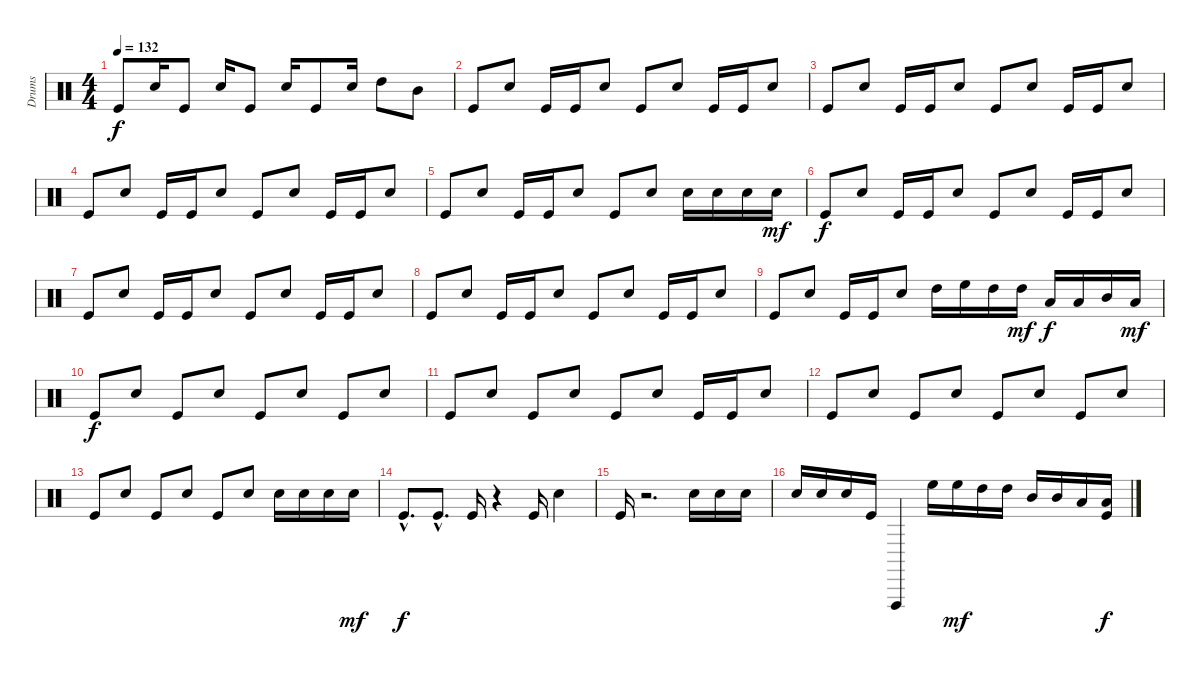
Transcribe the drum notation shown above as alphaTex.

\track ("Drums" "Drums") {instrument percussion}
\staff {score}
\articulation defaults
\ts (4 4)
\tempo 132
\clef neutral
\ks c "Kick (hit)".8{dy f} "Electric Snare (hit)".16 "Kick (hit)".8 "Electric Snare (hit)".16 "Kick (hit)".8 "Electric Snare (hit)".16 "Kick (hit)".8 "Electric Snare (hit)".16 "High Tom (hit)".8 "Mid Tom (hit)".8
|
"Kick (hit)".8 "Electric Snare (hit)".8 "Kick (hit)".16 "Kick (hit)".16 "Electric Snare (hit)".8 "Kick (hit)".8 "Electric Snare (hit)".8 "Kick (hit)".16 "Kick (hit)".16 "Electric Snare (hit)".8 |
"Kick (hit)".8 "Electric Snare (hit)".8 "Kick (hit)".16 "Kick (hit)".16 "Electric Snare (hit)".8 "Kick (hit)".8 "Electric Snare (hit)".8 "Kick (hit)".16 "Kick (hit)".16 "Electric Snare (hit)".8 |
"Kick (hit)".8 "Electric Snare (hit)".8 "Kick (hit)".16 "Kick (hit)".16 "Electric Snare (hit)".8 "Kick (hit)".8 "Electric Snare (hit)".8 "Kick (hit)".16 "Kick (hit)".16 "Electric Snare (hit)".8 |
"Kick (hit)".8 "Electric Snare (hit)".8 "Kick (hit)".16 "Kick (hit)".16 "Electric Snare (hit)".8 "Kick (hit)".8 "Electric Snare (hit)".8 "Electric Snare (hit)".16 "Electric Snare (hit)".16 "Electric Snare (hit)".16 "Electric Snare (hit)".16{dy mf} |
"Kick (hit)".8{dy f} "Electric Snare (hit)".8 "Kick (hit)".16 "Kick (hit)".16 "Electric Snare (hit)".8 "Kick (hit)".8 "Electric Snare (hit)".8 "Kick (hit)".16 "Kick (hit)".16 "Electric Snare (hit)".8 |
"Kick (hit)".8 "Electric Snare (hit)".8 "Kick (hit)".16 "Kick (hit)".16 "Electric Snare (hit)".8 "Kick (hit)".8 "Electric Snare (hit)".8 "Kick (hit)".16 "Kick (hit)".16 "Electric Snare (hit)".8 |
"Kick (hit)".8 "Electric Snare (hit)".8 "Kick (hit)".16 "Kick (hit)".16 "Electric Snare (hit)".8 "Kick (hit)".8 "Electric Snare (hit)".8 "Kick (hit)".16 "Kick (hit)".16 "Electric Snare (hit)".8 |
"Kick (hit)".8 "Electric Snare (hit)".8 "Kick (hit)".16 "Kick (hit)".16 "Electric Snare (hit)".8 "High Tom (hit)".16 "High Floor Tom (hit)".16 "High Tom (hit)".16 "High Tom (hit)".16{dy mf} "Low Tom (hit)".16{dy f} "Low Tom (hit)".16 "Mid Tom (hit)".16 "Low Tom (hit)".16{dy mf} |
"Kick (hit)".8{dy f} "Electric Snare (hit)".8 "Kick (hit)".8 "Electric Snare (hit)".8 "Kick (hit)".8 "Electric Snare (hit)".8 "Kick (hit)".8 "Electric Snare (hit)".8 |
"Kick (hit)".8 "Electric Snare (hit)".8 "Kick (hit)".8 "Electric Snare (hit)".8 "Kick (hit)".8 "Electric Snare (hit)".8 "Kick (hit)".16 "Kick (hit)".16 "Electric Snare (hit)".8 |
"Kick (hit)".8 "Electric Snare (hit)".8 "Kick (hit)".8 "Electric Snare (hit)".8 "Kick (hit)".8 "Electric Snare (hit)".8 "Kick (hit)".8 "Electric Snare (hit)".8 |
"Kick (hit)".8 "Electric Snare (hit)".8 "Kick (hit)".8 "Electric Snare (hit)".8 "Kick (hit)".8 "Electric Snare (hit)".8 "Electric Snare (hit)".16 "Electric Snare (hit)".16 "Electric Snare (hit)".16 "Electric Snare (hit)".16{dy mf} |
"Kick (hit)"{hac}.8{d dy f} "Kick (hit)"{hac}.8{d} "Kick (hit)".16 r.4 "Kick (hit)".16 "Electric Snare (hit)".4 |
"Kick (hit)".16 r.2{d} "Electric Snare (hit)".16 "Electric Snare (hit)".16 "Electric Snare (hit)".16 |
"Electric Snare (hit)".16 "Electric Snare (hit)".16 "Electric Snare (hit)".16 "Kick (hit)".16 "Vibraslap (hit)".4 "High Floor Tom (hit)".16 "High Floor Tom (hit)".16{dy mf} "High Tom (hit)".16 "High Tom (hit)".16 "Mid Tom (hit)".16 "Mid Tom (hit)".16 "Low Tom (hit)".16 ("Low Tom (hit)" "Kick (hit)").16{dy f}
